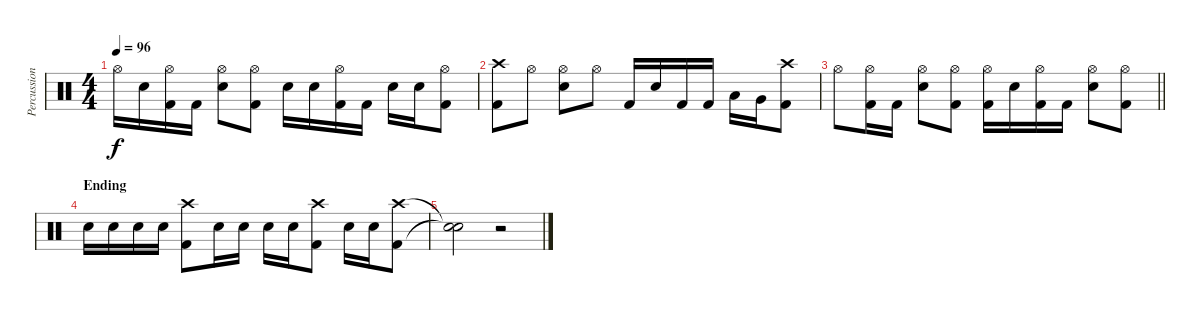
\track ("Percussion" "Percussion") {instrument percussion}
\staff {score}
\articulation defaults
\ts (4 4)
\tempo 96
\clef neutral
\ks c "Hi-Hat (open)".16{dy f} "Snare (hit) 2".16
("Hi-Hat (open)" "Kick (hit) 2").16 "Kick (hit) 2".16 ("Hi-Hat (open)" "Snare (hit) 2").8 ("Hi-Hat (open)" "Kick (hit) 2").8 "Snare (hit) 2".16 "Snare (hit) 2".16 ("Hi-Hat (open)" "Kick (hit) 2").16 "Kick (hit) 2".16 "Snare (hit) 2".16 "Snare (hit) 2".16 ("Hi-Hat (open)" "Kick (hit) 2").8 |
("Crash high (hit)" "Kick (hit) 2").8 "Hi-Hat (open)".8 ("Hi-Hat (open)" "Snare (hit) 2").8 "Hi-Hat (open)".8 "Kick (hit) 2".16 "Snare (hit) 2".16 "Kick (hit) 2".16 "Kick (hit) 2".16 "Low Tom (hit)".16 "Very Low Tom (hit)".16 ("Crash high (hit)" "Kick (hit) 2").8 |
\barLineRight lightlight "Hi-Hat (open)".8
("Hi-Hat (open)" "Kick (hit) 2").16 "Kick (hit) 2".16 ("Hi-Hat (open)" "Snare (hit) 2").8 ("Hi-Hat (open)" "Kick (hit) 2").8 ("Hi-Hat (open)" "Kick (hit) 2").16 "Snare (hit) 2".16 ("Hi-Hat (open)" "Kick (hit) 2").16 "Kick (hit) 2".16 ("Hi-Hat (open)" "Snare (hit) 2").8 ("Hi-Hat (open)" "Kick (hit) 2").8 |
\section ("" "Ending")
"Snare (hit) 2".16 "Snare (hit) 2".16 "Snare (hit) 2".16 "Snare (hit) 2".16 ("Crash high (hit)" "Kick (hit) 2").8 "Snare (hit) 2".16 "Snare (hit) 2".16 "Snare (hit) 2".16 "Snare (hit) 2".16 ("Crash high (hit)" "Kick (hit) 2").8 "Snare (hit) 2".16 "Snare (hit) 2".16 ("Crash high (hit)" "Kick (hit) 2").8 |
("Snare (hit)"{t} "Snare (hit)"{t}).2 r.2
